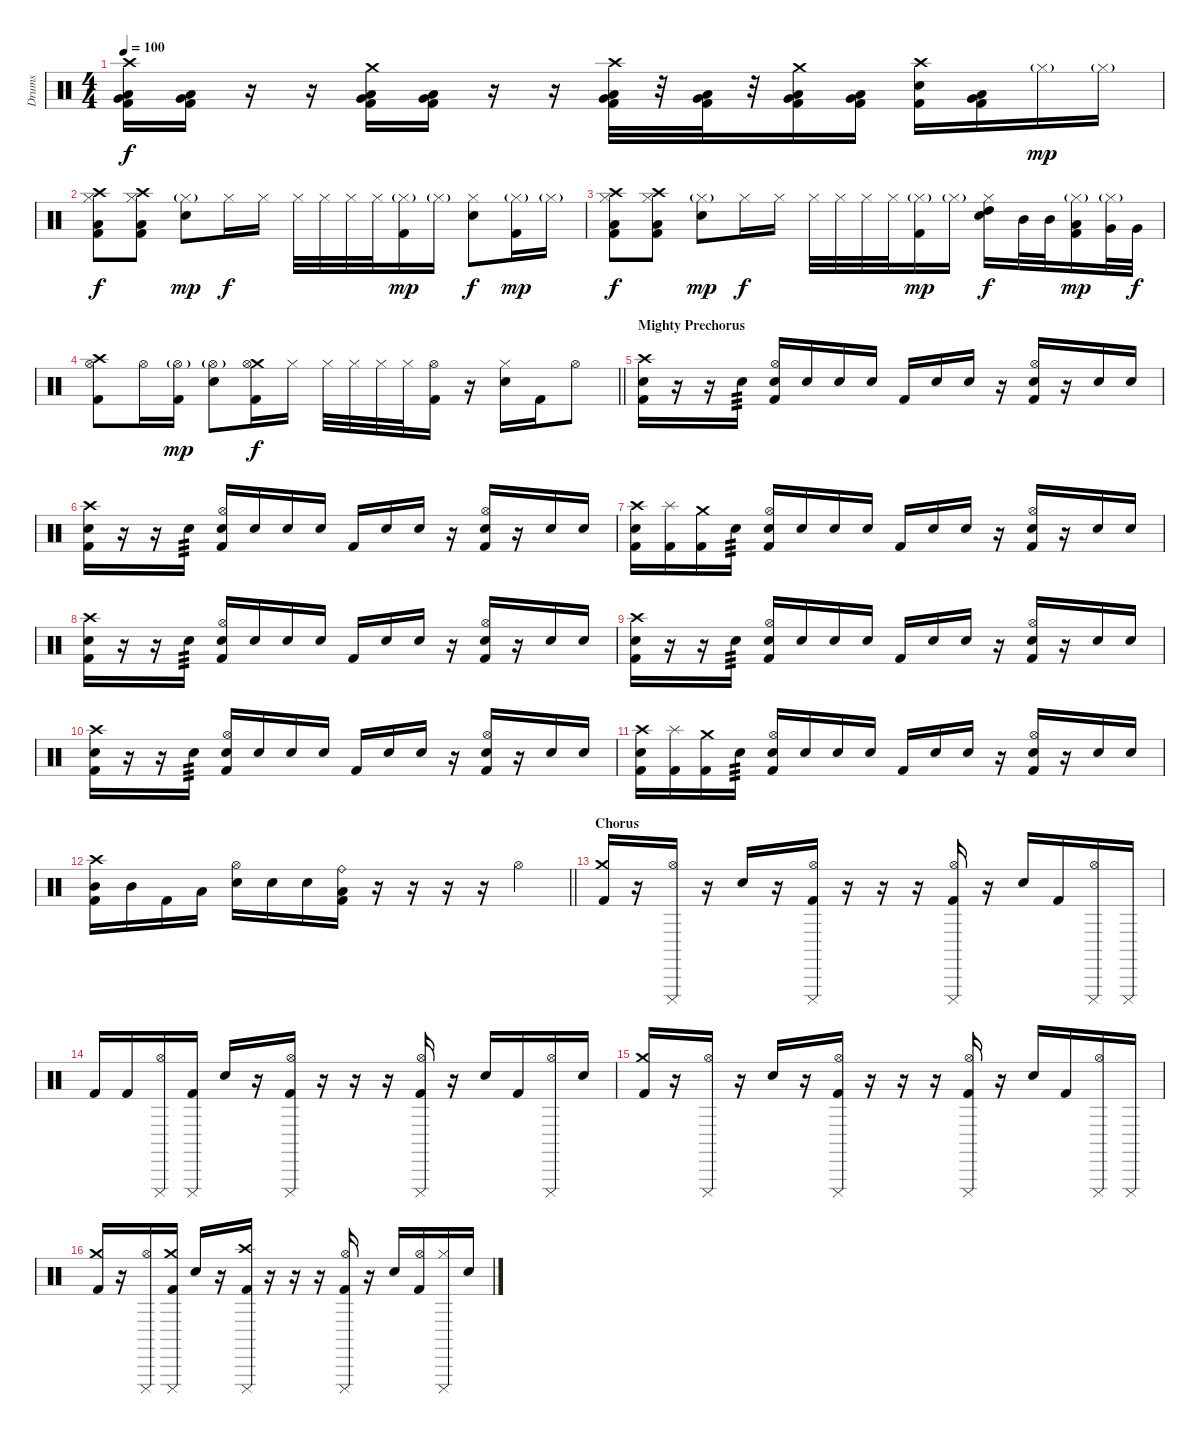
\track ("Drums" "Drums") {instrument percussion}
\staff {score}
\articulation defaults
\ts (4 4)
\tempo 100
\clef neutral
\ks c
("Crash high (hit)" "Very Low Tom (hit)" "Low Floor Tom (hit)" "Kick (hit) 2").16{dy f} ("Very Low Tom (hit)" "Low Floor Tom (hit)" "Kick (hit) 2").16 r.16 r.16 ("Crash medium (hit)" "Very Low Tom (hit)" "Low Floor Tom (hit)" "Kick (hit) 2").16 ("Very Low Tom (hit)" "Low Floor Tom (hit)" "Kick (hit) 2").16 r.16 r.16 ("Crash high (hit)" "Very Low Tom (hit)" "Low Floor Tom (hit)" "Kick (hit) 2").32 r.32 ("Very Low Tom (hit)" "Low Floor Tom (hit)" "Kick (hit) 2").32 r.32 ("Crash medium (hit)" "Very Low Tom (hit)" "Low Floor Tom (hit)" "Kick (hit) 2").16 ("Very Low Tom (hit)" "Low Floor Tom (hit)" "Kick (hit) 2").16 ("Crash high (hit)" "Snare (hit) 2" "Kick (hit) 2").16 ("Very Low Tom (hit)" "Low Floor Tom (hit)" "Kick (hit) 2").16 "Hi-Hat (closed)"{g}.16{dy mp} "Hi-Hat (closed)"{g}.16 |
("Crash high (hit)" "Hi-Hat (closed)" "Low Floor Tom (hit)" "Kick (hit) 2").8{dy f} ("Crash high (hit)" "Hi-Hat (closed)" "Low Floor Tom (hit)" "Kick (hit) 2").8 ("Hi-Hat (closed)"{g} "Snare (hit) 2").8{dy mp} "Hi-Hat (closed)".16{dy f} "Hi-Hat (closed)".16 "Hi-Hat (closed)".32 "Hi-Hat (closed)".32 "Hi-Hat (closed)".32 "Hi-Hat (closed)".32 ("Hi-Hat (closed)"{g} "Kick (hit) 2").16{dy mp} "Hi-Hat (closed)"{g}.16 ("Hi-Hat (closed)" "Snare (hit) 2").8{dy f} ("Hi-Hat (closed)"{g} "Kick (hit) 2").16{dy mp} "Hi-Hat (closed)"{g}.16 |
("Crash high (hit)" "Hi-Hat (closed)" "Low Floor Tom (hit)" "Kick (hit) 2").8{dy f} ("Crash high (hit)" "Hi-Hat (closed)" "Low Floor Tom (hit)" "Kick (hit) 2").8 ("Hi-Hat (closed)"{g} "Snare (hit) 2").8{dy mp} "Hi-Hat (closed)".16{dy f} "Hi-Hat (closed)".16 "Hi-Hat (closed)".32 "Hi-Hat (closed)".32 "Hi-Hat (closed)".32 "Hi-Hat (closed)".32 ("Hi-Hat (closed)"{g} "Kick (hit) 2").16{dy mp} "Hi-Hat (closed)"{g}.16 ("Hi-Hat (closed)" "High Tom (hit)" "Snare (hit) 2").16{dy f} "Mid Tom (hit)".32 "Mid Tom (hit)".32 ("Hi-Hat (closed)"{g} "Low Tom (hit)" "Kick (hit) 2").16{dy mp} ("Hi-Hat (closed)"{g} "Very Low Tom (hit)").32 "Very Low Tom (hit)".32{dy f} |
\barLineRight lightlight
("Crash high (hit)" "Hi-Hat (open)" "Kick (hit) 2").8 "Hi-Hat (open)".16 ("Hi-Hat (open)"{g} "Kick (hit) 2").16{dy mp} ("Hi-Hat (open)"{g} "Snare (hit) 2").8 ("Crash medium (hit)" "Hi-Hat (open)" "Kick (hit) 2").16{dy f} "Hi-Hat (closed)".16 "Hi-Hat (closed)".32 "Hi-Hat (closed)".32 "Hi-Hat (closed)".32 "Hi-Hat (closed)".32 ("Hi-Hat (open)" "Kick (hit) 2").16 r.16 ("Hi-Hat (closed)" "Snare (hit) 2").16 "Kick (hit) 2".16 "Hi-Hat (open)".8 |
\section ("" "Mighty Prechorus")
("Crash high (hit)" "Electric Snare (hit)" "Kick (hit) 2").16 r.16 r.16 "Electric Snare (hit)".16{tp 3} ("Hi-Hat (open)" "Electric Snare (hit)" "Kick (hit) 2").16 "Electric Snare (hit)".16 "Electric Snare (hit)".16 "Electric Snare (hit)".16 "Kick (hit) 2".16 "Electric Snare (hit)".16 "Electric Snare (hit)".16 r.16 ("Hi-Hat (open)" "Electric Snare (hit)" "Kick (hit) 2").16 r.16 "Electric Snare (hit)".16 "Electric Snare (hit)".16 |
("Crash high (hit)" "Electric Snare (hit)" "Kick (hit) 2").16 r.16 r.16 "Electric Snare (hit)".16{tp 3} ("Hi-Hat (open)" "Electric Snare (hit)" "Kick (hit) 2").16 "Electric Snare (hit)".16 "Electric Snare (hit)".16 "Electric Snare (hit)".16 "Kick (hit) 2".16 "Electric Snare (hit)".16 "Electric Snare (hit)".16 r.16 ("Hi-Hat (open)" "Electric Snare (hit)" "Kick (hit) 2").16 r.16 "Electric Snare (hit)".16 "Electric Snare (hit)".16 |
("Crash high (hit)" "Electric Snare (hit)" "Kick (hit) 2").16 ("Splash (hit)" "Kick (hit) 2").16 ("Crash medium (hit)" "Kick (hit) 2").16 "Electric Snare (hit)".16{tp 3} ("Hi-Hat (open)" "Electric Snare (hit)" "Kick (hit) 2").16 "Electric Snare (hit)".16 "Electric Snare (hit)".16 "Electric Snare (hit)".16 "Kick (hit) 2".16 "Electric Snare (hit)".16 "Electric Snare (hit)".16 r.16 ("Hi-Hat (open)" "Electric Snare (hit)" "Kick (hit) 2").16 r.16 "Electric Snare (hit)".16 "Electric Snare (hit)".16 |
("Crash high (hit)" "Electric Snare (hit)" "Kick (hit) 2").16 r.16 r.16 "Electric Snare (hit)".16{tp 3} ("Hi-Hat (open)" "Electric Snare (hit)" "Kick (hit) 2").16 "Electric Snare (hit)".16 "Electric Snare (hit)".16 "Electric Snare (hit)".16 "Kick (hit) 2".16 "Electric Snare (hit)".16 "Electric Snare (hit)".16 r.16 ("Hi-Hat (open)" "Electric Snare (hit)" "Kick (hit) 2").16 r.16 "Electric Snare (hit)".16 "Electric Snare (hit)".16 |
("Crash high (hit)" "Electric Snare (hit)" "Kick (hit) 2").16 r.16 r.16 "Electric Snare (hit)".16{tp 3} ("Hi-Hat (open)" "Electric Snare (hit)" "Kick (hit) 2").16 "Electric Snare (hit)".16 "Electric Snare (hit)".16 "Electric Snare (hit)".16 "Kick (hit) 2".16 "Electric Snare (hit)".16 "Electric Snare (hit)".16 r.16 ("Hi-Hat (open)" "Electric Snare (hit)" "Kick (hit) 2").16 r.16 "Electric Snare (hit)".16 "Electric Snare (hit)".16 |
("Crash high (hit)" "Electric Snare (hit)" "Kick (hit) 2").16 r.16 r.16 "Electric Snare (hit)".16{tp 3} ("Hi-Hat (open)" "Electric Snare (hit)" "Kick (hit) 2").16 "Electric Snare (hit)".16 "Electric Snare (hit)".16 "Electric Snare (hit)".16 "Kick (hit) 2".16 "Electric Snare (hit)".16 "Electric Snare (hit)".16 r.16 ("Hi-Hat (open)" "Electric Snare (hit)" "Kick (hit) 2").16 r.16 "Electric Snare (hit)".16 "Electric Snare (hit)".16 |
("Crash high (hit)" "Electric Snare (hit)" "Kick (hit) 2").16 ("Splash (hit)" "Kick (hit) 2").16 ("Crash medium (hit)" "Kick (hit) 2").16 "Electric Snare (hit)".16{tp 3} ("Hi-Hat (open)" "Electric Snare (hit)" "Kick (hit) 2").16 "Electric Snare (hit)".16 "Electric Snare (hit)".16 "Electric Snare (hit)".16 "Kick (hit) 2".16 "Electric Snare (hit)".16 "Electric Snare (hit)".16 r.16 ("Hi-Hat (open)" "Electric Snare (hit)" "Kick (hit) 2").16 r.16 "Electric Snare (hit)".16 "Electric Snare (hit)".16 |
\barLineRight lightlight
("Crash high (hit)" "Mid Tom (hit)" "Kick (hit) 2").16 "Mid Tom (hit)".16 "Kick (hit) 2".16 "Low Tom (hit)".16 ("Hi-Hat (open)" "Snare (hit) 2").16 "Snare (hit) 2".16 "Snare (hit) 2".16 ("Ride (bell)" "Low Floor Tom (hit)" "Kick (hit) 2").16 r.16 r.16 r.16 r.16 "Hi-Hat (open)".4 |
\section ("" "Chorus")
("Crash medium (hit)" "Kick (hit) 2").16 r.16 ("Cuica (mute)" "Hi-Hat (open)").16 r.16 "Snare (hit) 2".16 r.16 ("Cuica (mute)" "Hi-Hat (open)" "Kick (hit) 2").16 r.16 r.16 r.16 ("Cuica (mute)" "Hi-Hat (open)" "Kick (hit) 2").16 r.16 "Snare (hit) 2".16 "Kick (hit) 2".16 ("Cuica (mute)" "Hi-Hat (open)").16 "Cuica (mute)".16 |
"Kick (hit) 2".16 "Kick (hit) 2".16 ("Cuica (mute)" "Hi-Hat (open)").16 ("Cuica (mute)" "Kick (hit) 2").16 "Snare (hit) 2".16 r.16 ("Cuica (mute)" "Hi-Hat (open)" "Kick (hit) 2").16 r.16 r.16 r.16 ("Cuica (mute)" "Hi-Hat (open)" "Kick (hit) 2").16 r.16 "Snare (hit) 2".16 "Kick (hit) 2".16 ("Cuica (mute)" "Hi-Hat (open)").16 "Snare (hit) 2".16 |
("Crash medium (hit)" "Kick (hit) 2").16 r.16 ("Cuica (mute)" "Hi-Hat (open)").16 r.16 "Snare (hit) 2".16 r.16 ("Cuica (mute)" "Hi-Hat (open)" "Kick (hit) 2").16 r.16 r.16 r.16 ("Cuica (mute)" "Hi-Hat (open)" "Kick (hit) 2").16 r.16 "Snare (hit) 2".16 "Kick (hit) 2".16 ("Cuica (mute)" "Hi-Hat (open)").16 "Cuica (mute)".16 |
("Crash medium (hit)" "Kick (hit) 2").16 r.16 ("Cuica (mute)" "Hi-Hat (open)").16 ("Cuica (mute)" "Crash medium (hit)" "Kick (hit) 2").16 "Snare (hit) 2".16 r.16 ("Cuica (mute)" "Crash high (hit)" "Kick (hit) 2").16 r.16 r.16 r.16 ("Cuica (mute)" "Hi-Hat (open)" "Kick (hit) 2").16 r.16 "Snare (hit) 2".16 ("Hi-Hat (open)" "Kick (hit) 2").16 ("Cuica (mute)" "Hi-Hat (closed)").16 "Snare (hit) 2".16
